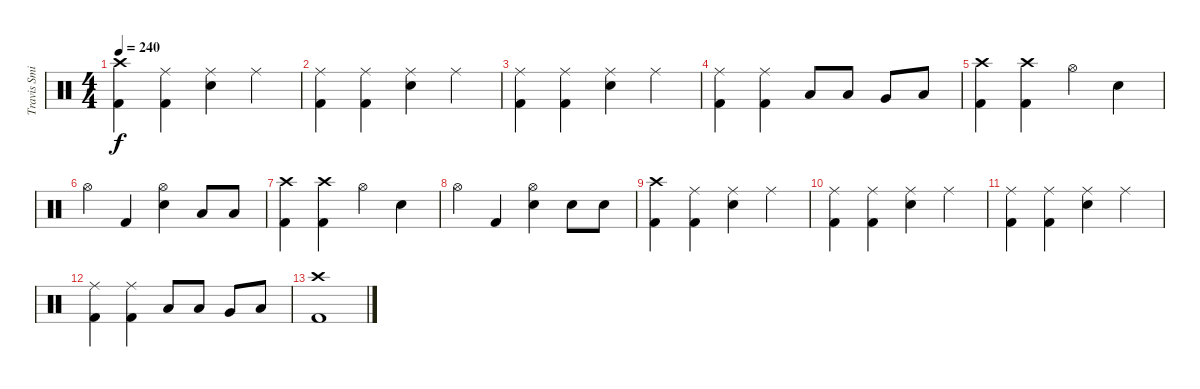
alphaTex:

\track ("Travis Smith (Drums)" "Travis Smi") {instrument percussion}
\staff {score}
\articulation defaults
\ts (4 4)
\tempo 240
\clef neutral
\ks c
("Kick (hit) 2" "Crash high (hit)").4{dy f} ("Kick (hit) 2" "Ride (middle)").4 ("Snare (hit) 2" "Ride (middle)").4 "Ride (middle)".4 |
("Kick (hit) 2" "Ride (middle)").4 ("Kick (hit) 2" "Ride (middle)").4 ("Snare (hit) 2" "Ride (middle)").4 "Ride (middle)".4 |
("Kick (hit) 2" "Ride (middle)").4 ("Kick (hit) 2" "Ride (middle)").4 ("Snare (hit) 2" "Ride (middle)").4 "Ride (middle)".4 |
("Kick (hit) 2" "Ride (middle)").4 ("Kick (hit) 2" "Ride (middle)").4 "Low Tom (hit)".8 "Low Tom (hit)".8 "Very Low Tom (hit)".8 "Low Floor Tom (hit)".8 |
("Kick (hit) 2" "Crash high (hit)").4 ("Kick (hit) 2" "Crash high (hit)").4 "Hi-Hat (open)".4 "Snare (hit) 2".4 |
"Hi-Hat (open)".4 "Kick (hit) 2".4 ("Snare (hit) 2" "Hi-Hat (open)").4 "Low Tom (hit)".8 "Low Tom (hit)".8 |
("Kick (hit) 2" "Crash high (hit)").4 ("Kick (hit) 2" "Crash high (hit)").4 "Hi-Hat (open)".4 "Snare (hit) 2".4 |
"Hi-Hat (open)".4 "Kick (hit) 2".4 ("Snare (hit) 2" "Hi-Hat (open)").4 "Snare (hit) 2".8 "Snare (hit) 2".8 |
("Kick (hit) 2" "Crash high (hit)").4 ("Kick (hit) 2" "Ride (middle)").4 ("Snare (hit) 2" "Ride (middle)").4 "Ride (middle)".4 |
("Kick (hit) 2" "Ride (middle)").4 ("Kick (hit) 2" "Ride (middle)").4 ("Snare (hit) 2" "Ride (middle)").4 "Ride (middle)".4 |
("Kick (hit) 2" "Ride (middle)").4 ("Kick (hit) 2" "Ride (middle)").4 ("Snare (hit) 2" "Ride (middle)").4 "Ride (middle)".4 |
("Kick (hit) 2" "Ride (middle)").4 ("Kick (hit) 2" "Ride (middle)").4 "Low Tom (hit)".8 "Low Tom (hit)".8 "Very Low Tom (hit)".8 "Low Floor Tom (hit)".8 |
("Kick (hit) 2" "Crash high (hit)").1
